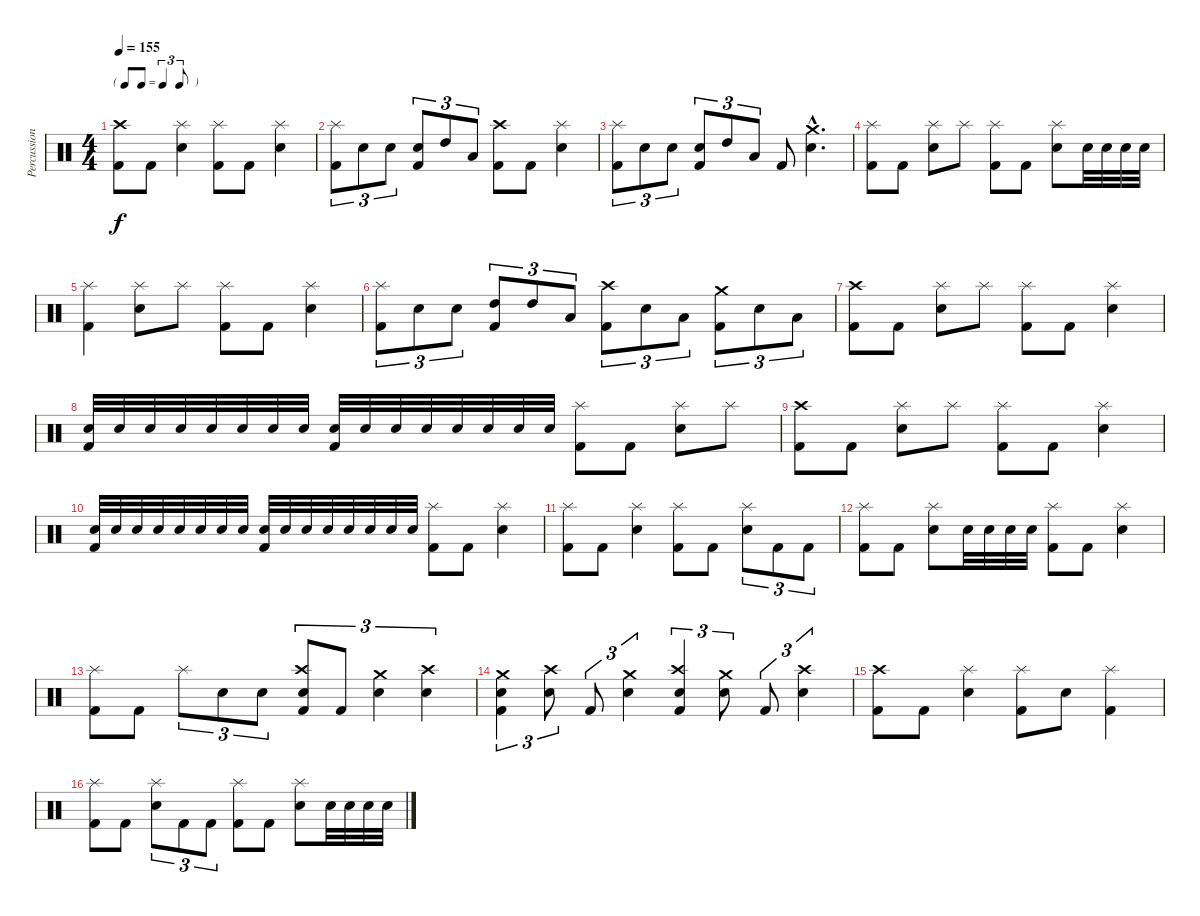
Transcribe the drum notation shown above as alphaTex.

\track ("Percussion" "Percussion") {instrument percussion}
\staff {score}
\articulation defaults
\ts (4 4)
\tf triplet8th
\tempo 155
\clef neutral
\ks c
("Kick (hit) 2" "Crash high (hit)").8{dy f} "Kick (hit) 2".8 ("Snare (hit) 2" "Splash (hit)").4 ("Kick (hit) 2" "Splash (hit)").8 "Kick (hit) 2".8 ("Snare (hit) 2" "Splash (hit)").4 |
("Kick (hit) 2" "Splash (hit)").8{tu (3 2)} "Snare (hit) 2".8{tu (3 2)} "Snare (hit) 2".8{tu (3 2)} ("Snare (hit) 2" "Kick (hit) 2").8{tu (3 2)} "High Tom (hit)".8{tu (3 2)} "Low Tom (hit)".8{tu (3 2)} ("Kick (hit) 2" "Crash high (hit)").8 "Kick (hit) 2".8 ("Snare (hit) 2" "Splash (hit)").4 |
("Kick (hit) 2" "Splash (hit)").8{tu (3 2)} "Snare (hit) 2".8{tu (3 2)} "Snare (hit) 2".8{tu (3 2)} ("Snare (hit) 2" "Kick (hit) 2").8{tu (3 2)} "High Tom (hit)".8{tu (3 2)} "Low Tom (hit)".8{tu (3 2)} "Kick (hit) 2".8 ("Snare (hit) 2"{hac} "Crash medium (hit)"{hac}).4{d} |
("Kick (hit) 2" "Splash (hit)").8 "Kick (hit) 2".8 ("Snare (hit) 2" "Splash (hit)").8 "Splash (hit)".8 ("Kick (hit) 2" "Splash (hit)").8 "Kick (hit) 2".8 ("Snare (hit) 2" "Splash (hit)").8 "Snare (hit) 2".32 "Snare (hit) 2".32 "Snare (hit) 2".32 "Snare (hit) 2".32 |
("Kick (hit) 2" "Splash (hit)").4 ("Snare (hit) 2" "Splash (hit)").8 "Splash (hit)".8 ("Kick (hit) 2" "Splash (hit)").8 "Kick (hit) 2".8 ("Snare (hit) 2" "Splash (hit)").4 |
("Kick (hit) 2" "Splash (hit)").8{tu (3 2)} "Snare (hit) 2".8{tu (3 2)} "Snare (hit) 2".8{tu (3 2)} ("Kick (hit) 2" "High Tom (hit)").8{tu (3 2)} "High Tom (hit)".8{tu (3 2)} "Low Tom (hit)".8{tu (3 2)} ("Kick (hit) 2" "Crash high (hit)").8{tu (3 2)} "Snare (hit) 2".8{tu (3 2)} "Low Tom (hit)".8{tu (3 2)} ("Kick (hit) 2" "Crash medium (hit)").8{tu (3 2)} "Snare (hit) 2".8{tu (3 2)} "Low Tom (hit)".8{tu (3 2)} |
("Kick (hit) 2" "Crash high (hit)").8 "Kick (hit) 2".8 ("Snare (hit) 2" "Splash (hit)").8 "Splash (hit)".8 ("Kick (hit) 2" "Splash (hit)").8 "Kick (hit) 2".8 ("Snare (hit) 2" "Splash (hit)").4 |
("Snare (hit) 2" "Kick (hit) 2").32 "Snare (hit) 2".32 "Snare (hit) 2".32 "Snare (hit) 2".32 "Snare (hit) 2".32 "Snare (hit) 2".32 "Snare (hit) 2".32 "Snare (hit) 2".32 ("Snare (hit) 2" "Kick (hit) 2").32 "Snare (hit) 2".32 "Snare (hit) 2".32 "Snare (hit) 2".32 "Snare (hit) 2".32 "Snare (hit) 2".32 "Snare (hit) 2".32 "Snare (hit) 2".32 ("Kick (hit) 2" "Splash (hit)").8 "Kick (hit) 2".8 ("Snare (hit) 2" "Splash (hit)").8 "Splash (hit)".8 |
("Kick (hit) 2" "Crash high (hit)").8 "Kick (hit) 2".8 ("Snare (hit) 2" "Splash (hit)").8 "Splash (hit)".8 ("Kick (hit) 2" "Splash (hit)").8 "Kick (hit) 2".8 ("Snare (hit) 2" "Splash (hit)").4 |
("Snare (hit) 2" "Kick (hit) 2").32 "Snare (hit) 2".32 "Snare (hit) 2".32 "Snare (hit) 2".32 "Snare (hit) 2".32 "Snare (hit) 2".32 "Snare (hit) 2".32 "Snare (hit) 2".32 ("Snare (hit) 2" "Kick (hit) 2").32 "Snare (hit) 2".32 "Snare (hit) 2".32 "Snare (hit) 2".32 "Snare (hit) 2".32 "Snare (hit) 2".32 "Snare (hit) 2".32 "Snare (hit) 2".32 ("Kick (hit) 2" "Splash (hit)").8 "Kick (hit) 2".8 ("Snare (hit) 2" "Splash (hit)").4 |
("Kick (hit) 2" "Splash (hit)").8 "Kick (hit) 2".8 ("Snare (hit) 2" "Splash (hit)").4 ("Kick (hit) 2" "Splash (hit)").8 "Kick (hit) 2".8 ("Snare (hit) 2" "Splash (hit)").8{tu (3 2)} "Kick (hit) 2".8{tu (3 2)} "Kick (hit) 2".8{tu (3 2)} |
("Kick (hit) 2" "Splash (hit)").8 "Kick (hit) 2".8 ("Snare (hit) 2" "Splash (hit)").8 "Snare (hit) 2".32 "Snare (hit) 2".32 "Snare (hit) 2".32 "Snare (hit) 2".32 ("Kick (hit) 2" "Splash (hit)").8 "Kick (hit) 2".8 ("Snare (hit) 2" "Splash (hit)").4 |
("Kick (hit) 2" "Splash (hit)").8 "Kick (hit) 2".8 "Splash (hit)".8{tu (3 2)} "Snare (hit) 2".8{tu (3 2)} "Snare (hit) 2".8{tu (3 2)} ("Snare (hit) 2" "Kick (hit) 2" "Crash high (hit)").8{tu (3 2)} "Kick (hit) 2".8{tu (3 2)} ("Snare (hit) 2" "Crash medium (hit)").4{tu (3 2)} ("Snare (hit) 2" "Crash high (hit)").4{tu (3 2)} |
("Snare (hit) 2" "Kick (hit) 2" "Crash medium (hit)").4{tu (3 2)} ("Snare (hit) 2" "Crash high (hit)").8{tu (3 2)} "Kick (hit) 2".8{tu (3 2)} ("Snare (hit) 2" "Crash medium (hit)").4{tu (3 2)} ("Snare (hit) 2" "Kick (hit) 2" "Crash high (hit)").4{tu (3 2)} ("Snare (hit) 2" "Crash medium (hit)").8{tu (3 2)} "Kick (hit) 2".8{tu (3 2)} ("Snare (hit) 2" "Crash high (hit)").4{tu (3 2)} |
("Kick (hit) 2" "Crash high (hit)").8 "Kick (hit) 2".8 ("Snare (hit) 2" "Splash (hit)").4 ("Kick (hit) 2" "Splash (hit)").8 "Snare (hit) 2".8 ("Kick (hit) 2" "Splash (hit)").4 |
("Kick (hit) 2" "Splash (hit)").8 "Kick (hit) 2".8 ("Snare (hit) 2" "Splash (hit)").8{tu (3 2)} "Kick (hit) 2".8{tu (3 2)} "Kick (hit) 2".8{tu (3 2)} ("Kick (hit) 2" "Splash (hit)").8 "Kick (hit) 2".8 ("Snare (hit) 2" "Splash (hit)").8 "Snare (hit) 2".32 "Snare (hit) 2".32 "Snare (hit) 2".32 "Snare (hit) 2".32
